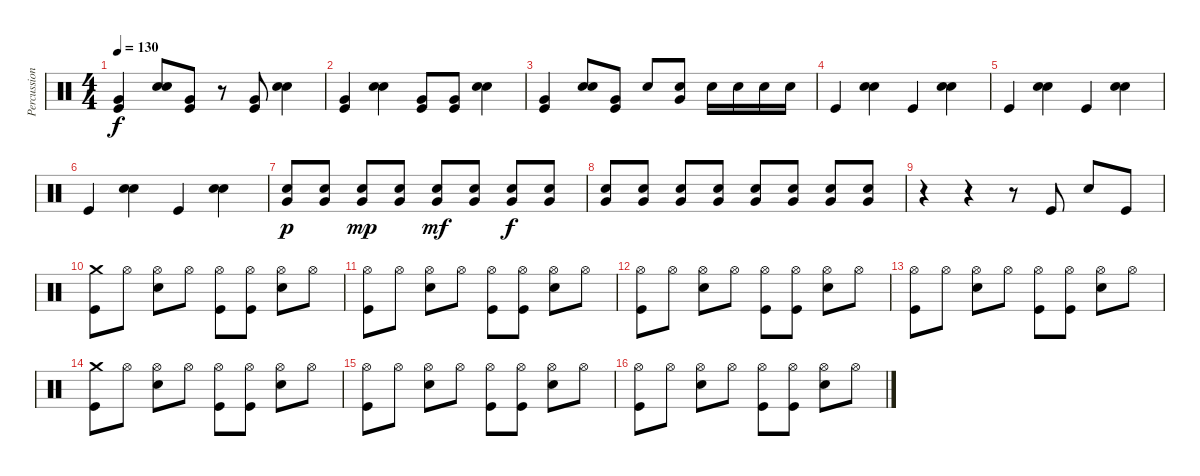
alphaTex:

\track ("Percussion" "Percussion") {instrument percussion}
\staff {score}
\articulation defaults
\ts (4 4)
\tempo 130
\clef neutral
\ks c
("Kick (hit)" "Very Low Tom (hit)").4{dy f} ("Snare (hit) 2" "Hand Clap (hit)").8 ("Kick (hit)" "Very Low Tom (hit)").8 r.8 ("Kick (hit)" "Very Low Tom (hit)").8 ("Snare (hit) 2" "Hand Clap (hit)").4 |
("Kick (hit)" "Very Low Tom (hit)").4 ("Snare (hit) 2" "Hand Clap (hit)").4 ("Kick (hit)" "Very Low Tom (hit)").8 ("Kick (hit)" "Very Low Tom (hit)").8 ("Snare (hit) 2" "Hand Clap (hit)").4 |
("Kick (hit)" "Very Low Tom (hit)").4 ("Snare (hit) 2" "Hand Clap (hit)").8 ("Kick (hit)" "Very Low Tom (hit)").8 "Snare (hit) 2".8 ("Snare (hit) 2" "Very Low Tom (hit)").8 "Snare (hit) 2".16 "Snare (hit) 2".16 "Snare (hit) 2".16 "Snare (hit) 2".16 |
"Kick (hit)".4 ("Snare (hit) 2" "Hand Clap (hit)").4 "Kick (hit)".4 ("Snare (hit) 2" "Hand Clap (hit)").4 |
"Kick (hit)".4 ("Snare (hit) 2" "Hand Clap (hit)").4 "Kick (hit)".4 ("Snare (hit) 2" "Hand Clap (hit)").4 |
"Kick (hit)".4 ("Snare (hit) 2" "Hand Clap (hit)").4 "Kick (hit)".4 ("Snare (hit) 2" "Hand Clap (hit)").4 |
("Snare (hit) 2" "Very Low Tom (hit)").8{dy p} ("Snare (hit) 2" "Very Low Tom (hit)").8 ("Snare (hit) 2" "Very Low Tom (hit)").8{dy mp} ("Snare (hit) 2" "Very Low Tom (hit)").8 ("Snare (hit) 2" "Very Low Tom (hit)").8{dy mf} ("Snare (hit) 2" "Very Low Tom (hit)").8 ("Snare (hit) 2" "Very Low Tom (hit)").8{dy f} ("Snare (hit) 2" "Very Low Tom (hit)").8 |
("Snare (hit) 2" "Very Low Tom (hit)").8 ("Snare (hit) 2" "Very Low Tom (hit)").8 ("Snare (hit) 2" "Very Low Tom (hit)").8 ("Snare (hit) 2" "Very Low Tom (hit)").8 ("Snare (hit) 2" "Very Low Tom (hit)").8 ("Snare (hit) 2" "Very Low Tom (hit)").8 ("Snare (hit) 2" "Very Low Tom (hit)").8 ("Snare (hit) 2" "Very Low Tom (hit)").8 |
r.4 r.4 r.8 "Kick (hit)".8 "Snare (hit) 2".8 "Kick (hit)".8 |
("Crash medium (hit)" "Kick (hit)").8 "Hi-Hat (open)".8 ("Hi-Hat (open)" "Snare (hit) 2").8 "Hi-Hat (open)".8 ("Hi-Hat (open)" "Kick (hit)").8 ("Hi-Hat (open)" "Kick (hit)").8 ("Hi-Hat (open)" "Snare (hit) 2").8 "Hi-Hat (open)".8 |
("Hi-Hat (open)" "Kick (hit)").8 "Hi-Hat (open)".8 ("Hi-Hat (open)" "Snare (hit) 2").8 "Hi-Hat (open)".8 ("Hi-Hat (open)" "Kick (hit)").8 ("Hi-Hat (open)" "Kick (hit)").8 ("Hi-Hat (open)" "Snare (hit) 2").8 "Hi-Hat (open)".8 |
("Hi-Hat (open)" "Kick (hit)").8 "Hi-Hat (open)".8 ("Hi-Hat (open)" "Snare (hit) 2").8 "Hi-Hat (open)".8 ("Hi-Hat (open)" "Kick (hit)").8 ("Hi-Hat (open)" "Kick (hit)").8 ("Hi-Hat (open)" "Snare (hit) 2").8 "Hi-Hat (open)".8 |
("Hi-Hat (open)" "Kick (hit)").8 "Hi-Hat (open)".8 ("Hi-Hat (open)" "Snare (hit) 2").8 "Hi-Hat (open)".8 ("Hi-Hat (open)" "Kick (hit)").8 ("Hi-Hat (open)" "Kick (hit)").8 ("Hi-Hat (open)" "Snare (hit) 2").8 "Hi-Hat (open)".8 |
("Crash medium (hit)" "Kick (hit)").8 "Hi-Hat (open)".8 ("Hi-Hat (open)" "Snare (hit) 2").8 "Hi-Hat (open)".8 ("Hi-Hat (open)" "Kick (hit)").8 ("Hi-Hat (open)" "Kick (hit)").8 ("Hi-Hat (open)" "Snare (hit) 2").8 "Hi-Hat (open)".8 |
("Hi-Hat (open)" "Kick (hit)").8 "Hi-Hat (open)".8 ("Hi-Hat (open)" "Snare (hit) 2").8 "Hi-Hat (open)".8 ("Hi-Hat (open)" "Kick (hit)").8 ("Hi-Hat (open)" "Kick (hit)").8 ("Hi-Hat (open)" "Snare (hit) 2").8 "Hi-Hat (open)".8 |
("Hi-Hat (open)" "Kick (hit)").8 "Hi-Hat (open)".8 ("Hi-Hat (open)" "Snare (hit) 2").8 "Hi-Hat (open)".8 ("Hi-Hat (open)" "Kick (hit)").8 ("Hi-Hat (open)" "Kick (hit)").8 ("Hi-Hat (open)" "Snare (hit) 2").8 "Hi-Hat (open)".8
